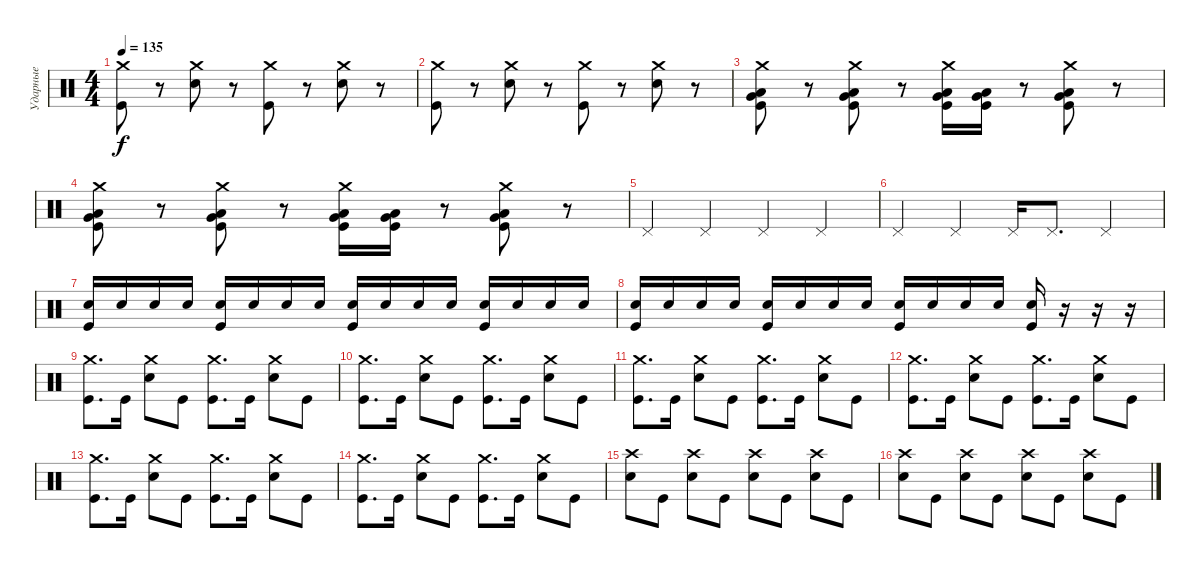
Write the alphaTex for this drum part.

\track ("Ударные" "Ударные") {instrument percussion}
\staff {score}
\articulation defaults
\ts (4 4)
\tempo 135
\clef neutral
\ks c
("Crash medium (hit)" "Kick (hit)").8{dy f} r.8 ("Crash medium (hit)" "Electric Snare (hit)").8 r.8 ("Crash medium (hit)" "Kick (hit)").8 r.8 ("Crash medium (hit)" "Electric Snare (hit)").8 r.8 |
("Crash medium (hit)" "Kick (hit)").8 r.8 ("Crash medium (hit)" "Electric Snare (hit)").8 r.8 ("Crash medium (hit)" "Kick (hit)").8 r.8 ("Crash medium (hit)" "Electric Snare (hit)").8 r.8 |
("Crash medium (hit)" "Very Low Tom (hit)" "Low Floor Tom (hit)" "Kick (hit)").8 r.8 ("Crash medium (hit)" "Very Low Tom (hit)" "Low Floor Tom (hit)" "Kick (hit)").8 r.8 ("Crash medium (hit)" "Very Low Tom (hit)" "Low Floor Tom (hit)" "Kick (hit)").16 ("Very Low Tom (hit)" "Low Floor Tom (hit)" "Kick (hit)").16 r.8 ("Crash medium (hit)" "Very Low Tom (hit)" "Low Floor Tom (hit)" "Kick (hit)").8 r.8 |
("Crash medium (hit)" "Very Low Tom (hit)" "Low Floor Tom (hit)" "Kick (hit)").8 r.8 ("Crash medium (hit)" "Very Low Tom (hit)" "Low Floor Tom (hit)" "Kick (hit)").8 r.8 ("Crash medium (hit)" "Very Low Tom (hit)" "Low Floor Tom (hit)" "Kick (hit)").16 ("Very Low Tom (hit)" "Low Floor Tom (hit)" "Kick (hit)").16 r.8 ("Crash medium (hit)" "Very Low Tom (hit)" "Low Floor Tom (hit)" "Kick (hit)").8 r.8 |
"Pedal Hi-Hat (hit)".4 "Pedal Hi-Hat (hit)".4 "Pedal Hi-Hat (hit)".4 "Pedal Hi-Hat (hit)".4 |
"Pedal Hi-Hat (hit)".4 "Pedal Hi-Hat (hit)".4 "Pedal Hi-Hat (hit)".16 "Pedal Hi-Hat (hit)".8{d} "Pedal Hi-Hat (hit)".4 |
("Electric Snare (hit)" "Kick (hit)").16 "Electric Snare (hit)".16 "Electric Snare (hit)".16 "Electric Snare (hit)".16 ("Electric Snare (hit)" "Kick (hit)").16 "Electric Snare (hit)".16 "Electric Snare (hit)".16 "Electric Snare (hit)".16 ("Electric Snare (hit)" "Kick (hit)").16 "Electric Snare (hit)".16 "Electric Snare (hit)".16 "Electric Snare (hit)".16 ("Electric Snare (hit)" "Kick (hit)").16 "Electric Snare (hit)".16 "Electric Snare (hit)".16 "Electric Snare (hit)".16 |
("Electric Snare (hit)" "Kick (hit)").16 "Electric Snare (hit)".16 "Electric Snare (hit)".16 "Electric Snare (hit)".16 ("Electric Snare (hit)" "Kick (hit)").16 "Electric Snare (hit)".16 "Electric Snare (hit)".16 "Electric Snare (hit)".16 ("Electric Snare (hit)" "Kick (hit)").16 "Electric Snare (hit)".16 "Electric Snare (hit)".16 "Electric Snare (hit)".16 ("Electric Snare (hit)" "Kick (hit)").16 r.16 r.16 r.16 |
("Crash medium (hit)" "Kick (hit)").8{d} "Kick (hit)".16 ("Crash medium (hit)" "Electric Snare (hit)").8 "Kick (hit)".8 ("Crash medium (hit)" "Kick (hit)").8{d} "Kick (hit)".16 ("Crash medium (hit)" "Electric Snare (hit)").8 "Kick (hit)".8 |
("Crash medium (hit)" "Kick (hit)").8{d} "Kick (hit)".16 ("Crash medium (hit)" "Electric Snare (hit)").8 "Kick (hit)".8 ("Crash medium (hit)" "Kick (hit)").8{d} "Kick (hit)".16 ("Crash medium (hit)" "Electric Snare (hit)").8 "Kick (hit)".8 |
("Crash medium (hit)" "Kick (hit)").8{d} "Kick (hit)".16 ("Crash medium (hit)" "Electric Snare (hit)").8 "Kick (hit)".8 ("Crash medium (hit)" "Kick (hit)").8{d} "Kick (hit)".16 ("Crash medium (hit)" "Electric Snare (hit)").8 "Kick (hit)".8 |
("Crash medium (hit)" "Kick (hit)").8{d} "Kick (hit)".16 ("Crash medium (hit)" "Electric Snare (hit)").8 "Kick (hit)".8 ("Crash medium (hit)" "Kick (hit)").8{d} "Kick (hit)".16 ("Crash medium (hit)" "Electric Snare (hit)").8 "Kick (hit)".8 |
("Crash medium (hit)" "Kick (hit)").8{d} "Kick (hit)".16 ("Crash medium (hit)" "Electric Snare (hit)").8 "Kick (hit)".8 ("Crash medium (hit)" "Kick (hit)").8{d} "Kick (hit)".16 ("Crash medium (hit)" "Electric Snare (hit)").8 "Kick (hit)".8 |
("Crash medium (hit)" "Kick (hit)").8{d} "Kick (hit)".16 ("Crash medium (hit)" "Electric Snare (hit)").8 "Kick (hit)".8 ("Crash medium (hit)" "Kick (hit)").8{d} "Kick (hit)".16 ("Crash medium (hit)" "Electric Snare (hit)").8 "Kick (hit)".8 |
("Crash high (hit)" "Electric Snare (hit)").8 "Kick (hit)".8 ("Crash high (hit)" "Electric Snare (hit)").8 "Kick (hit)".8 ("Crash high (hit)" "Electric Snare (hit)").8 "Kick (hit)".8 ("Crash high (hit)" "Electric Snare (hit)").8 "Kick (hit)".8 |
("Crash high (hit)" "Electric Snare (hit)").8 "Kick (hit)".8 ("Crash high (hit)" "Electric Snare (hit)").8 "Kick (hit)".8 ("Crash high (hit)" "Electric Snare (hit)").8 "Kick (hit)".8 ("Crash high (hit)" "Electric Snare (hit)").8 "Kick (hit)".8
